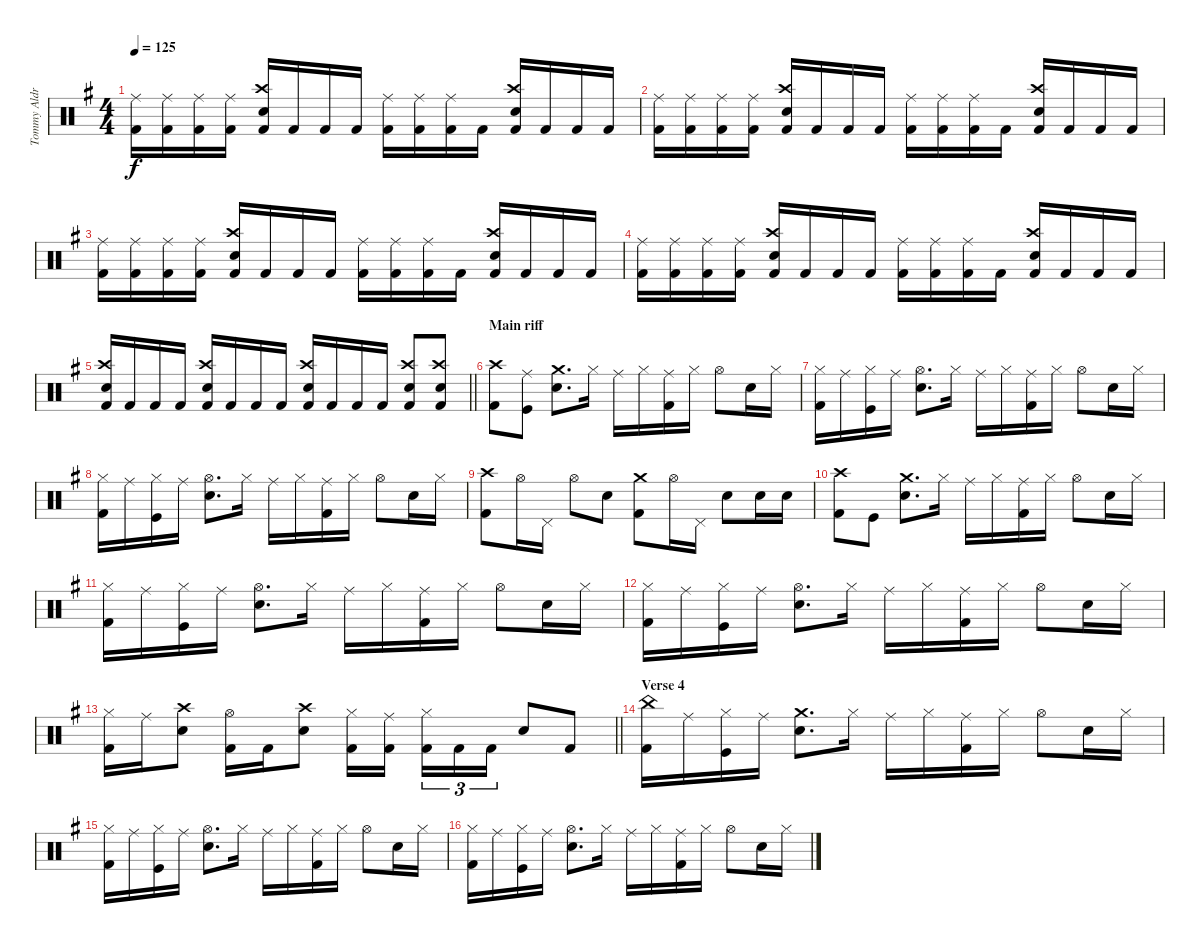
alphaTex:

\track ("Tommy Aldridge" "Tommy Aldr") {instrument percussion}
\staff {score}
\articulation defaults
\ts (4 4)
\tempo 125
\clef neutral
\ks eminor
("Ride (middle)" "Kick (hit) 2").16{dy f} ("Ride (middle)" "Kick (hit) 2").16 ("Ride (middle)" "Kick (hit) 2").16 ("Ride (middle)" "Kick (hit) 2").16 ("Crash high (hit)" "Snare (hit) 2" "Kick (hit) 2").16 "Kick (hit) 2".16 "Kick (hit) 2".16 "Kick (hit) 2".16 ("Ride (middle)" "Kick (hit) 2").16 ("Ride (middle)" "Kick (hit) 2").16 ("Ride (middle)" "Kick (hit) 2").16 "Kick (hit) 2".16 ("Crash high (hit)" "Snare (hit) 2" "Kick (hit) 2").16 "Kick (hit) 2".16 "Kick (hit) 2".16 "Kick (hit) 2".16 |
("Ride (middle)" "Kick (hit) 2").16 ("Ride (middle)" "Kick (hit) 2").16 ("Ride (middle)" "Kick (hit) 2").16 ("Ride (middle)" "Kick (hit) 2").16 ("Crash high (hit)" "Snare (hit) 2" "Kick (hit) 2").16 "Kick (hit) 2".16 "Kick (hit) 2".16 "Kick (hit) 2".16 ("Ride (middle)" "Kick (hit) 2").16 ("Ride (middle)" "Kick (hit) 2").16 ("Ride (middle)" "Kick (hit) 2").16 "Kick (hit) 2".16 ("Crash high (hit)" "Snare (hit) 2" "Kick (hit) 2").16 "Kick (hit) 2".16 "Kick (hit) 2".16 "Kick (hit) 2".16 |
("Ride (middle)" "Kick (hit) 2").16 ("Ride (middle)" "Kick (hit) 2").16 ("Ride (middle)" "Kick (hit) 2").16 ("Ride (middle)" "Kick (hit) 2").16 ("Crash high (hit)" "Snare (hit) 2" "Kick (hit) 2").16 "Kick (hit) 2".16 "Kick (hit) 2".16 "Kick (hit) 2".16 ("Ride (middle)" "Kick (hit) 2").16 ("Ride (middle)" "Kick (hit) 2").16 ("Ride (middle)" "Kick (hit) 2").16 "Kick (hit) 2".16 ("Crash high (hit)" "Snare (hit) 2" "Kick (hit) 2").16 "Kick (hit) 2".16 "Kick (hit) 2".16 "Kick (hit) 2".16 |
("Ride (middle)" "Kick (hit) 2").16 ("Ride (middle)" "Kick (hit) 2").16 ("Ride (middle)" "Kick (hit) 2").16 ("Ride (middle)" "Kick (hit) 2").16 ("Crash high (hit)" "Snare (hit) 2" "Kick (hit) 2").16 "Kick (hit) 2".16 "Kick (hit) 2".16 "Kick (hit) 2".16 ("Ride (middle)" "Kick (hit) 2").16 ("Ride (middle)" "Kick (hit) 2").16 ("Ride (middle)" "Kick (hit) 2").16 "Kick (hit) 2".16 ("Crash high (hit)" "Snare (hit) 2" "Kick (hit) 2").16 "Kick (hit) 2".16 "Kick (hit) 2".16 "Kick (hit) 2".16 |
\barLineRight lightlight
("Crash high (hit)" "Snare (hit) 2" "Kick (hit) 2").16 "Kick (hit) 2".16 "Kick (hit) 2".16 "Kick (hit) 2".16 ("Crash high (hit)" "Snare (hit) 2" "Kick (hit) 2").16 "Kick (hit) 2".16 "Kick (hit) 2".16 "Kick (hit) 2".16 ("Crash high (hit)" "Snare (hit) 2" "Kick (hit) 2").16 "Kick (hit) 2".16 "Kick (hit) 2".16 "Kick (hit) 2".16 ("Crash high (hit)" "Snare (hit) 2" "Kick (hit) 2").8 ("Crash high (hit)" "Snare (hit) 2" "Kick (hit) 2").8 |
\section ("" "Main riff")
("Crash high (hit)" "Kick (hit) 2").8 ("Ride (middle)" "Kick (hit)").8 ("Crash medium (hit)" "Snare (hit) 2").8{d} "Hi-Hat (closed)".16 "Ride (middle)".16 "Hi-Hat (closed)".16 ("Ride (middle)" "Kick (hit) 2").16 "Hi-Hat (closed)".16 "Hi-Hat (open)".8 "Snare (hit) 2".16 "Hi-Hat (closed)".16 |
("Hi-Hat (closed)" "Kick (hit) 2").16 "Ride (middle)".16 ("Hi-Hat (closed)" "Kick (hit)").16 "Ride (middle)".16 ("Hi-Hat (open)" "Snare (hit) 2").8{d} "Hi-Hat (closed)".16 "Ride (middle)".16 "Hi-Hat (closed)".16 ("Ride (middle)" "Kick (hit) 2").16 "Hi-Hat (closed)".16 "Hi-Hat (open)".8 "Snare (hit) 2".16 "Hi-Hat (closed)".16 |
("Hi-Hat (closed)" "Kick (hit) 2").16 "Ride (middle)".16 ("Hi-Hat (closed)" "Kick (hit)").16 "Ride (middle)".16 ("Hi-Hat (open)" "Snare (hit) 2").8{d} "Hi-Hat (closed)".16 "Ride (middle)".16 "Hi-Hat (closed)".16 ("Ride (middle)" "Kick (hit) 2").16 "Hi-Hat (closed)".16 "Hi-Hat (open)".8 "Snare (hit) 2".16 "Hi-Hat (closed)".16 |
("Crash high (hit)" "Kick (hit) 2").8 "Hi-Hat (open)".16 "Pedal Hi-Hat (hit)".16 "Hi-Hat (open)".8 "Snare (hit) 2".8 ("Crash medium (hit)" "Kick (hit) 2").8 "Hi-Hat (open)".16 "Pedal Hi-Hat (hit)".16 "Snare (hit) 2".8 "Snare (hit) 2".16 "Snare (hit) 2".16 |
("Crash high (hit)" "Kick (hit) 2").8 "Kick (hit)".8 ("Crash medium (hit)" "Snare (hit) 2").8{d} "Hi-Hat (closed)".16 "Ride (middle)".16 "Hi-Hat (closed)".16 ("Ride (middle)" "Kick (hit) 2").16 "Hi-Hat (closed)".16 "Hi-Hat (open)".8 "Snare (hit) 2".16 "Hi-Hat (closed)".16 |
("Hi-Hat (closed)" "Kick (hit) 2").16 "Ride (middle)".16 ("Hi-Hat (closed)" "Kick (hit)").16 "Ride (middle)".16 ("Hi-Hat (open)" "Snare (hit) 2").8{d} "Hi-Hat (closed)".16 "Ride (middle)".16 "Hi-Hat (closed)".16 ("Ride (middle)" "Kick (hit) 2").16 "Hi-Hat (closed)".16 "Hi-Hat (open)".8 "Snare (hit) 2".16 "Hi-Hat (closed)".16 |
("Hi-Hat (closed)" "Kick (hit) 2").16 "Ride (middle)".16 ("Hi-Hat (closed)" "Kick (hit)").16 "Ride (middle)".16 ("Hi-Hat (open)" "Snare (hit) 2").8{d} "Hi-Hat (closed)".16 "Ride (middle)".16 "Hi-Hat (closed)".16 ("Ride (middle)" "Kick (hit) 2").16 "Hi-Hat (closed)".16 "Hi-Hat (open)".8 "Snare (hit) 2".16 "Hi-Hat (closed)".16 |
\barLineRight lightlight
("Hi-Hat (closed)" "Kick (hit) 2").16 "Ride (middle)".16 ("Crash high (hit)" "Snare (hit) 2").8 ("Hi-Hat (open)" "Kick (hit) 2").16 "Kick (hit) 2".16 ("Crash high (hit)" "Snare (hit) 2").8 ("Hi-Hat (closed)" "Kick (hit) 2").16 ("Ride (middle)" "Kick (hit) 2").16{beam splitsecondary} ("Hi-Hat (closed)" "Kick (hit) 2").16{tu (3 2)} "Kick (hit) 2".16{tu (3 2)} "Kick (hit) 2".16{tu (3 2)} "Snare (hit) 2".8 "Kick (hit) 2".8 |
\section ("" "Verse 4")
("China (hit)" "Kick (hit) 2").16 "Ride (middle)".16 ("Hi-Hat (closed)" "Kick (hit)").16 "Ride (middle)".16 ("Crash medium (hit)" "Snare (hit) 2").8{d} "Hi-Hat (closed)".16 "Ride (middle)".16 "Hi-Hat (closed)".16 ("Ride (middle)" "Kick (hit) 2").16 "Hi-Hat (closed)".16 "Hi-Hat (open)".8 "Snare (hit) 2".16 "Hi-Hat (closed)".16 |
("Hi-Hat (closed)" "Kick (hit) 2").16 "Ride (middle)".16 ("Hi-Hat (closed)" "Kick (hit)").16 "Ride (middle)".16 ("Hi-Hat (open)" "Snare (hit) 2").8{d} "Hi-Hat (closed)".16 "Ride (middle)".16 "Hi-Hat (closed)".16 ("Ride (middle)" "Kick (hit) 2").16 "Hi-Hat (closed)".16 "Hi-Hat (open)".8 "Snare (hit) 2".16 "Hi-Hat (closed)".16 |
("Hi-Hat (closed)" "Kick (hit) 2").16 "Ride (middle)".16 ("Hi-Hat (closed)" "Kick (hit)").16 "Ride (middle)".16 ("Hi-Hat (open)" "Snare (hit) 2").8{d} "Hi-Hat (closed)".16 "Ride (middle)".16 "Hi-Hat (closed)".16 ("Ride (middle)" "Kick (hit) 2").16 "Hi-Hat (closed)".16 "Hi-Hat (open)".8 "Snare (hit) 2".16 "Hi-Hat (closed)".16
